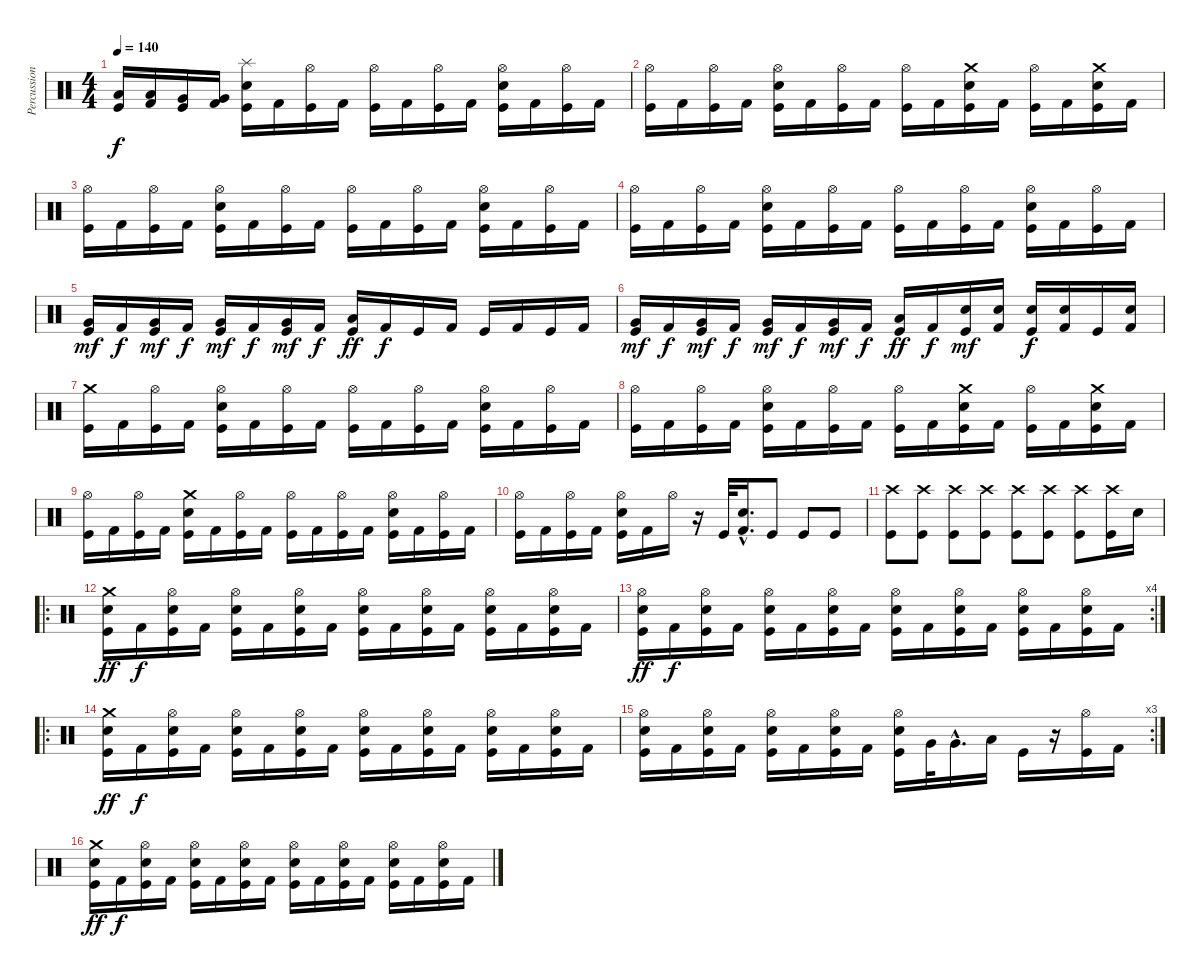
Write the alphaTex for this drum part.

\track ("Percussion" "Percussion") {instrument percussion}
\staff {score}
\articulation defaults
\ts (4 4)
\tempo 140
\clef neutral
\ks c
("Low Tom (hit)" "Kick (hit)").16{dy f} ("Low Tom (hit)" "Kick (hit) 2").16 ("Very Low Tom (hit)" "Kick (hit)").16 ("Very Low Tom (hit)" "Kick (hit) 2").16 ("Splash (hit)" "Electric Snare (hit)" "Kick (hit)").16 "Kick (hit) 2".16 ("Hi-Hat (open)" "Kick (hit)").16 "Kick (hit) 2".16 ("Hi-Hat (open)" "Kick (hit)").16 "Kick (hit) 2".16 ("Hi-Hat (open)" "Kick (hit)").16 "Kick (hit) 2".16 ("Hi-Hat (open)" "Electric Snare (hit)" "Kick (hit)").16 "Kick (hit) 2".16 ("Hi-Hat (open)" "Kick (hit)").16 "Kick (hit) 2".16 |
("Hi-Hat (open)" "Kick (hit)").16 "Kick (hit) 2".16 ("Hi-Hat (open)" "Kick (hit)").16 "Kick (hit) 2".16 ("Hi-Hat (open)" "Electric Snare (hit)" "Kick (hit)").16 "Kick (hit) 2".16 ("Hi-Hat (open)" "Kick (hit)").16 "Kick (hit) 2".16 ("Hi-Hat (open)" "Kick (hit)").16 "Kick (hit) 2".16 ("Crash medium (hit)" "Electric Snare (hit)" "Kick (hit)").16 "Kick (hit) 2".16 ("Hi-Hat (open)" "Kick (hit)").16 "Kick (hit) 2".16 ("Crash medium (hit)" "Electric Snare (hit)" "Kick (hit)").16 "Kick (hit) 2".16 |
("Hi-Hat (open)" "Kick (hit)").16 "Kick (hit) 2".16 ("Hi-Hat (open)" "Kick (hit)").16 "Kick (hit) 2".16 ("Hi-Hat (open)" "Electric Snare (hit)" "Kick (hit)").16 "Kick (hit) 2".16 ("Hi-Hat (open)" "Kick (hit)").16 "Kick (hit) 2".16 ("Hi-Hat (open)" "Kick (hit)").16 "Kick (hit) 2".16 ("Hi-Hat (open)" "Kick (hit)").16 "Kick (hit) 2".16 ("Hi-Hat (open)" "Electric Snare (hit)" "Kick (hit)").16 "Kick (hit) 2".16 ("Hi-Hat (open)" "Kick (hit)").16 "Kick (hit) 2".16 |
("Hi-Hat (open)" "Kick (hit)").16 "Kick (hit) 2".16 ("Hi-Hat (open)" "Kick (hit)").16 "Kick (hit) 2".16 ("Hi-Hat (open)" "Electric Snare (hit)" "Kick (hit)").16 "Kick (hit) 2".16 ("Hi-Hat (open)" "Kick (hit)").16 "Kick (hit) 2".16 ("Hi-Hat (open)" "Kick (hit)").16 "Kick (hit) 2".16 ("Hi-Hat (open)" "Kick (hit)").16 "Kick (hit) 2".16 ("Hi-Hat (open)" "Electric Snare (hit)" "Kick (hit)").16 "Kick (hit) 2".16 ("Hi-Hat (open)" "Kick (hit)").16 "Kick (hit) 2".16 |
("Very Low Tom (hit)" "Kick (hit)").16{dy mf} "Kick (hit) 2".16{dy f} ("Very Low Tom (hit)" "Kick (hit)").16{dy mf} "Kick (hit) 2".16{dy f} ("Very Low Tom (hit)" "Kick (hit)").16{dy mf} "Kick (hit) 2".16{dy f} ("Very Low Tom (hit)" "Kick (hit)").16{dy mf} "Kick (hit) 2".16{dy f} ("Low Floor Tom (hit)" "Kick (hit)").16{dy ff} "Kick (hit) 2".16{dy f} "Kick (hit)".16 "Kick (hit) 2".16 "Kick (hit)".16 "Kick (hit) 2".16 "Kick (hit)".16 "Kick (hit) 2".16 |
("Very Low Tom (hit)" "Kick (hit)").16{dy mf} "Kick (hit) 2".16{dy f} ("Very Low Tom (hit)" "Kick (hit)").16{dy mf} "Kick (hit) 2".16{dy f} ("Very Low Tom (hit)" "Kick (hit)").16{dy mf} "Kick (hit) 2".16{dy f} ("Very Low Tom (hit)" "Kick (hit)").16{dy mf} "Kick (hit) 2".16{dy f} ("Low Floor Tom (hit)" "Kick (hit)").16{dy ff} "Kick (hit) 2".16{dy f} ("Electric Snare (hit)" "Kick (hit)").16{dy mf} ("Electric Snare (hit)" "Kick (hit) 2").16 ("Electric Snare (hit)" "Kick (hit)").16{dy f} ("Electric Snare (hit)" "Kick (hit) 2").16 "Kick (hit)".16 ("Electric Snare (hit)" "Kick (hit) 2").16 |
("Crash medium (hit)" "Kick (hit)").16 "Kick (hit) 2".16 ("Hi-Hat (open)" "Kick (hit)").16 "Kick (hit) 2".16 ("Hi-Hat (open)" "Electric Snare (hit)" "Kick (hit)").16 "Kick (hit) 2".16 ("Hi-Hat (open)" "Kick (hit)").16 "Kick (hit) 2".16 ("Hi-Hat (open)" "Kick (hit)").16 "Kick (hit) 2".16 ("Hi-Hat (open)" "Kick (hit)").16 "Kick (hit) 2".16 ("Hi-Hat (open)" "Electric Snare (hit)" "Kick (hit)").16 "Kick (hit) 2".16 ("Hi-Hat (open)" "Kick (hit)").16 "Kick (hit) 2".16 |
("Hi-Hat (open)" "Kick (hit)").16 "Kick (hit) 2".16 ("Hi-Hat (open)" "Kick (hit)").16 "Kick (hit) 2".16 ("Hi-Hat (open)" "Electric Snare (hit)" "Kick (hit)").16 "Kick (hit) 2".16 ("Hi-Hat (open)" "Kick (hit)").16 "Kick (hit) 2".16 ("Hi-Hat (open)" "Kick (hit)").16 "Kick (hit) 2".16 ("Crash medium (hit)" "Electric Snare (hit)" "Kick (hit)").16 "Kick (hit) 2".16 ("Hi-Hat (open)" "Kick (hit)").16 "Kick (hit) 2".16 ("Crash medium (hit)" "Electric Snare (hit)" "Kick (hit)").16 "Kick (hit) 2".16 |
("Hi-Hat (open)" "Kick (hit)").16 "Kick (hit) 2".16 ("Hi-Hat (open)" "Kick (hit)").16 "Kick (hit) 2".16 ("Crash medium (hit)" "Electric Snare (hit)" "Kick (hit)").16 "Kick (hit) 2".16 ("Hi-Hat (open)" "Kick (hit)").16 "Kick (hit) 2".16 ("Hi-Hat (open)" "Kick (hit)").16 "Kick (hit) 2".16 ("Hi-Hat (open)" "Kick (hit)").16 "Kick (hit) 2".16 ("Hi-Hat (open)" "Electric Snare (hit)" "Kick (hit)").16 "Kick (hit) 2".16 ("Hi-Hat (open)" "Kick (hit)").16 "Kick (hit) 2".16 |
("Hi-Hat (open)" "Kick (hit)").16 "Kick (hit) 2".16 ("Hi-Hat (open)" "Kick (hit)").16 "Kick (hit) 2".16 ("Hi-Hat (open)" "Electric Snare (hit)" "Kick (hit)").16 "Kick (hit) 2".16 "Hi-Hat (open)".16 r.16 "Kick (hit)".32 ("Electric Snare (hit)"{hac} "Kick (hit) 2"{hac}).16{d} "Kick (hit)".8 "Kick (hit)".8 "Kick (hit)".8 |
("Crash high (hit)" "Kick (hit)").8 ("Crash high (hit)" "Kick (hit)").8 ("Crash high (hit)" "Kick (hit)").8 ("Crash high (hit)" "Kick (hit)").8 ("Crash high (hit)" "Kick (hit)").8 ("Crash high (hit)" "Kick (hit)").8 ("Crash high (hit)" "Kick (hit)").8 ("Crash high (hit)" "Kick (hit)").16 "Electric Snare (hit)".16 |
\ro
("Crash medium (hit)" "Electric Snare (hit)" "Kick (hit)").16{dy ff} "Kick (hit) 2".16{dy f} ("Hi-Hat (open)" "Electric Snare (hit)" "Kick (hit)").16 "Kick (hit) 2".16 ("Hi-Hat (open)" "Electric Snare (hit)" "Kick (hit)").16 "Kick (hit) 2".16 ("Hi-Hat (open)" "Electric Snare (hit)" "Kick (hit)").16 "Kick (hit) 2".16 ("Hi-Hat (open)" "Electric Snare (hit)" "Kick (hit)").16 "Kick (hit) 2".16 ("Hi-Hat (open)" "Electric Snare (hit)" "Kick (hit)").16 "Kick (hit) 2".16 ("Hi-Hat (open)" "Electric Snare (hit)" "Kick (hit)").16 "Kick (hit) 2".16 ("Hi-Hat (open)" "Electric Snare (hit)" "Kick (hit)").16 "Kick (hit) 2".16 |
\rc 4
("Hi-Hat (open)" "Electric Snare (hit)" "Kick (hit)").16{dy ff} "Kick (hit) 2".16{dy f} ("Hi-Hat (open)" "Electric Snare (hit)" "Kick (hit)").16 "Kick (hit) 2".16 ("Hi-Hat (open)" "Electric Snare (hit)" "Kick (hit)").16 "Kick (hit) 2".16 ("Hi-Hat (open)" "Electric Snare (hit)" "Kick (hit)").16 "Kick (hit) 2".16 ("Hi-Hat (open)" "Electric Snare (hit)" "Kick (hit)").16 "Kick (hit) 2".16 ("Hi-Hat (open)" "Electric Snare (hit)" "Kick (hit)").16 "Kick (hit) 2".16 ("Hi-Hat (open)" "Electric Snare (hit)" "Kick (hit)").16 "Kick (hit) 2".16 ("Hi-Hat (open)" "Electric Snare (hit)" "Kick (hit)").16 "Kick (hit) 2".16 |
\ro
("Crash medium (hit)" "Electric Snare (hit)" "Kick (hit)").16{dy ff} "Kick (hit) 2".16{dy f} ("Hi-Hat (open)" "Electric Snare (hit)" "Kick (hit)").16 "Kick (hit) 2".16 ("Hi-Hat (open)" "Electric Snare (hit)" "Kick (hit)").16 "Kick (hit) 2".16 ("Hi-Hat (open)" "Electric Snare (hit)" "Kick (hit)").16 "Kick (hit) 2".16 ("Hi-Hat (open)" "Electric Snare (hit)" "Kick (hit)").16 "Kick (hit) 2".16 ("Hi-Hat (open)" "Electric Snare (hit)" "Kick (hit)").16 "Kick (hit) 2".16 ("Hi-Hat (open)" "Electric Snare (hit)" "Kick (hit)").16 "Kick (hit) 2".16 ("Hi-Hat (open)" "Electric Snare (hit)" "Kick (hit)").16 "Kick (hit) 2".16 |
\rc 3
("Hi-Hat (open)" "Electric Snare (hit)" "Kick (hit)").16 "Kick (hit) 2".16 ("Hi-Hat (open)" "Electric Snare (hit)" "Kick (hit)").16 "Kick (hit) 2".16 ("Hi-Hat (open)" "Electric Snare (hit)" "Kick (hit)").16 "Kick (hit) 2".16 ("Hi-Hat (open)" "Electric Snare (hit)" "Kick (hit)").16 "Kick (hit) 2".16 ("Hi-Hat (open)" "Electric Snare (hit)" "Kick (hit)").16 "Very Low Tom (hit)".32 "Very Low Tom (hit)"{hac}.16{d} "Low Floor Tom (hit)".16 "Kick (hit)".16 r.16 ("Hi-Hat (open)" "Kick (hit)").16 "Kick (hit) 2".16 |
("Crash medium (hit)" "Electric Snare (hit)" "Kick (hit)").16{dy ff} "Kick (hit) 2".16{dy f} ("Hi-Hat (open)" "Electric Snare (hit)" "Kick (hit)").16 "Kick (hit) 2".16 ("Hi-Hat (open)" "Electric Snare (hit)" "Kick (hit)").16 "Kick (hit) 2".16 ("Hi-Hat (open)" "Electric Snare (hit)" "Kick (hit)").16 "Kick (hit) 2".16 ("Hi-Hat (open)" "Electric Snare (hit)" "Kick (hit)").16 "Kick (hit) 2".16 ("Hi-Hat (open)" "Electric Snare (hit)" "Kick (hit)").16 "Kick (hit) 2".16 ("Hi-Hat (open)" "Electric Snare (hit)" "Kick (hit)").16 "Kick (hit) 2".16 ("Hi-Hat (open)" "Electric Snare (hit)" "Kick (hit)").16 "Kick (hit) 2".16
